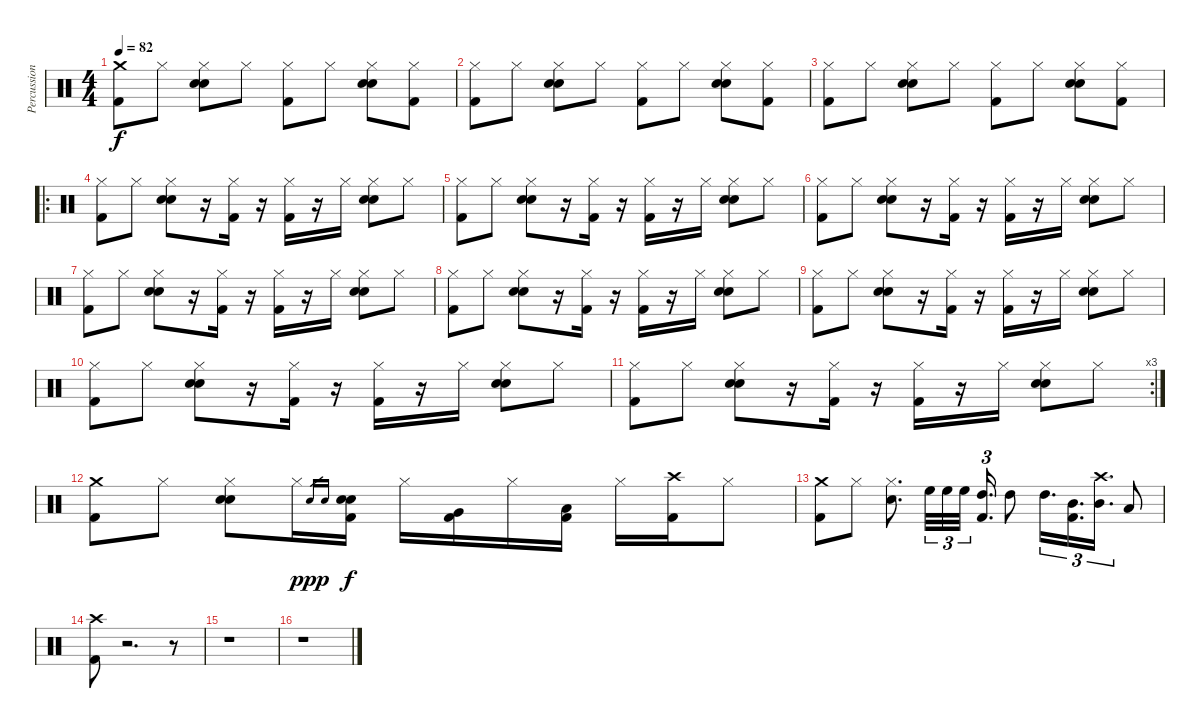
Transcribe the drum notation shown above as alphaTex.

\track ("Percussion" "Percussion") {instrument percussion}
\staff {score}
\articulation defaults
\ts (4 4)
\tempo 82
\clef neutral
\ks c
("Crash medium (hit)" "Kick (hit) 2").8{dy f} "Hi-Hat (closed)".8 ("Hi-Hat (closed)" "Snare (hit) 2" "Electric Snare (hit)").8 "Hi-Hat (closed)".8 ("Hi-Hat (closed)" "Kick (hit) 2").8 "Hi-Hat (closed)".8 ("Hi-Hat (closed)" "Snare (hit) 2" "Electric Snare (hit)").8 ("Hi-Hat (closed)" "Kick (hit) 2").8 |
("Hi-Hat (closed)" "Kick (hit) 2").8 "Hi-Hat (closed)".8 ("Hi-Hat (closed)" "Snare (hit) 2" "Electric Snare (hit)").8 "Hi-Hat (closed)".8 ("Hi-Hat (closed)" "Kick (hit) 2").8 "Hi-Hat (closed)".8 ("Hi-Hat (closed)" "Snare (hit) 2" "Electric Snare (hit)").8 ("Hi-Hat (closed)" "Kick (hit) 2").8 |
("Hi-Hat (closed)" "Kick (hit) 2").8 "Hi-Hat (closed)".8 ("Hi-Hat (closed)" "Snare (hit) 2" "Electric Snare (hit)").8 "Hi-Hat (closed)".8 ("Hi-Hat (closed)" "Kick (hit) 2").8 "Hi-Hat (closed)".8 ("Hi-Hat (closed)" "Snare (hit) 2" "Electric Snare (hit)").8 ("Hi-Hat (closed)" "Kick (hit) 2").8 |
\ro
("Hi-Hat (closed)" "Kick (hit) 2").8 "Hi-Hat (closed)".8 ("Hi-Hat (closed)" "Snare (hit) 2" "Electric Snare (hit)").8 r.16 ("Hi-Hat (closed)" "Kick (hit) 2").16 r.16 ("Hi-Hat (closed)" "Kick (hit) 2").16 r.16 "Hi-Hat (closed)".16 ("Hi-Hat (closed)" "Snare (hit) 2" "Electric Snare (hit)").8 "Hi-Hat (closed)".8 |
("Hi-Hat (closed)" "Kick (hit) 2").8 "Hi-Hat (closed)".8 ("Hi-Hat (closed)" "Snare (hit) 2" "Electric Snare (hit)").8 r.16 ("Hi-Hat (closed)" "Kick (hit) 2").16 r.16 ("Hi-Hat (closed)" "Kick (hit) 2").16 r.16 "Hi-Hat (closed)".16 ("Hi-Hat (closed)" "Snare (hit) 2" "Electric Snare (hit)").8 "Hi-Hat (closed)".8 |
("Hi-Hat (closed)" "Kick (hit) 2").8 "Hi-Hat (closed)".8 ("Hi-Hat (closed)" "Snare (hit) 2" "Electric Snare (hit)").8 r.16 ("Hi-Hat (closed)" "Kick (hit) 2").16 r.16 ("Hi-Hat (closed)" "Kick (hit) 2").16 r.16 "Hi-Hat (closed)".16 ("Hi-Hat (closed)" "Snare (hit) 2" "Electric Snare (hit)").8 "Hi-Hat (closed)".8 |
("Hi-Hat (closed)" "Kick (hit) 2").8 "Hi-Hat (closed)".8 ("Hi-Hat (closed)" "Snare (hit) 2" "Electric Snare (hit)").8 r.16 ("Hi-Hat (closed)" "Kick (hit) 2").16 r.16 ("Hi-Hat (closed)" "Kick (hit) 2").16 r.16 "Hi-Hat (closed)".16 ("Hi-Hat (closed)" "Snare (hit) 2" "Electric Snare (hit)").8 "Hi-Hat (closed)".8 |
("Hi-Hat (closed)" "Kick (hit) 2").8 "Hi-Hat (closed)".8 ("Hi-Hat (closed)" "Snare (hit) 2" "Electric Snare (hit)").8 r.16 ("Hi-Hat (closed)" "Kick (hit) 2").16 r.16 ("Hi-Hat (closed)" "Kick (hit) 2").16 r.16 "Hi-Hat (closed)".16 ("Hi-Hat (closed)" "Snare (hit) 2" "Electric Snare (hit)").8 "Hi-Hat (closed)".8 |
("Hi-Hat (closed)" "Kick (hit) 2").8 "Hi-Hat (closed)".8 ("Hi-Hat (closed)" "Snare (hit) 2" "Electric Snare (hit)").8 r.16 ("Hi-Hat (closed)" "Kick (hit) 2").16 r.16 ("Hi-Hat (closed)" "Kick (hit) 2").16 r.16 "Hi-Hat (closed)".16 ("Hi-Hat (closed)" "Snare (hit) 2" "Electric Snare (hit)").8 "Hi-Hat (closed)".8 |
("Hi-Hat (closed)" "Kick (hit) 2").8 "Hi-Hat (closed)".8 ("Hi-Hat (closed)" "Snare (hit) 2" "Electric Snare (hit)").8 r.16 ("Hi-Hat (closed)" "Kick (hit) 2").16 r.16 ("Hi-Hat (closed)" "Kick (hit) 2").16 r.16 "Hi-Hat (closed)".16 ("Hi-Hat (closed)" "Snare (hit) 2" "Electric Snare (hit)").8 "Hi-Hat (closed)".8 |
\rc 3
("Hi-Hat (closed)" "Kick (hit) 2").8 "Hi-Hat (closed)".8 ("Hi-Hat (closed)" "Snare (hit) 2" "Electric Snare (hit)").8 r.16 ("Hi-Hat (closed)" "Kick (hit) 2").16 r.16 ("Hi-Hat (closed)" "Kick (hit) 2").16 r.16 "Hi-Hat (closed)".16 ("Hi-Hat (closed)" "Snare (hit) 2" "Electric Snare (hit)").8 "Hi-Hat (closed)".8 |
("Crash medium (hit)" "Kick (hit) 2").8 "Hi-Hat (closed)".8 ("Hi-Hat (closed)" "Snare (hit) 2" "Electric Snare (hit)").8 "Hi-Hat (closed)".16 "Snare (hit) 2".16{gr dy ppp} "Electric Snare (hit)".16{gr} ("Snare (hit) 2" "Electric Snare (hit)" "Kick (hit) 2").16{dy f} "Hi-Hat (closed)".16 ("Very Low Tom (hit)" "Kick (hit) 2").16 "Hi-Hat (closed)".16 ("Low Floor Tom (hit)" "Kick (hit) 2").16 "Hi-Hat (closed)".16 ("Crash high (hit)" "Kick (hit) 2").16 "Hi-Hat (closed)".8 |
("Crash medium (hit)" "Kick (hit) 2").8 "Hi-Hat (closed)".8 ("Hi-Hat (closed)" "Electric Snare (hit)").8{d} "High Floor Tom (hit)".32{tu (3 2)} "High Floor Tom (hit)".32{tu (3 2)} "High Floor Tom (hit)".32{tu (3 2)} ("High Tom (hit)" "Kick (hit) 2").16{d tu (3 2)} "High Tom (hit)".8 "High Tom (hit)".16{d tu (3 2)} ("Mid Tom (hit)" "Kick (hit) 2").16{d tu (3 2)} ("Crash high (hit)" "Mid Tom (hit)").16{d tu (3 2)} "Low Floor Tom (hit)".8 |
("Crash high (hit)" "Kick (hit) 2").8 r.2{d} r.8 |
r.1 |
r.1
